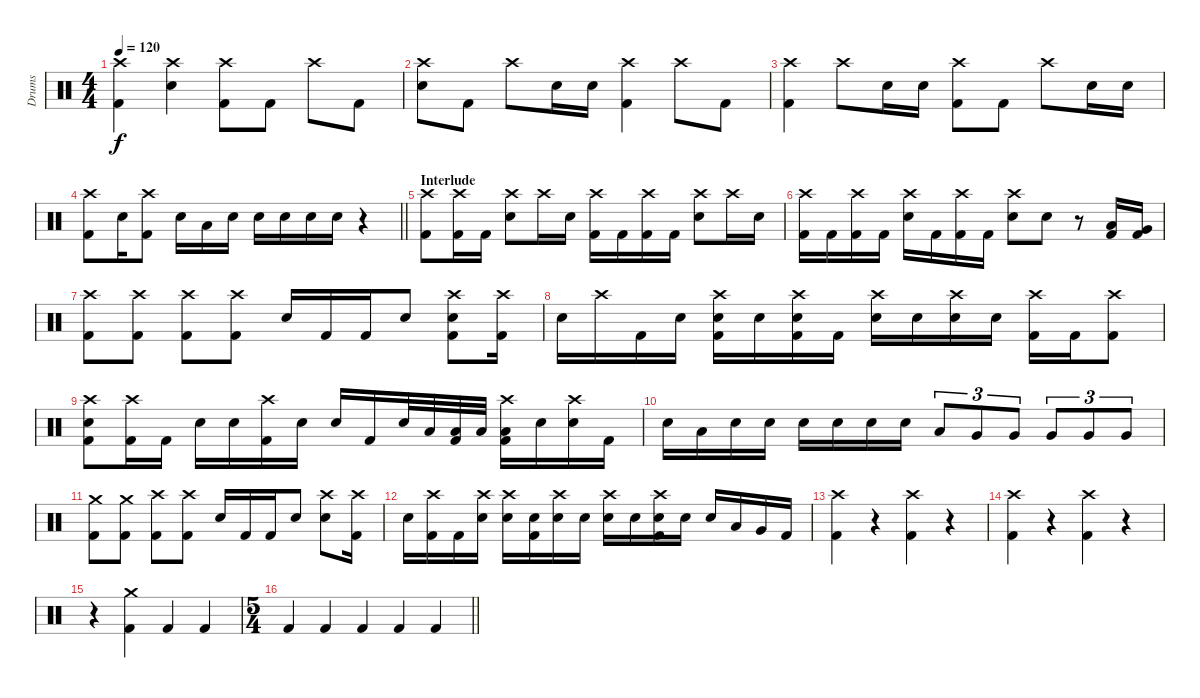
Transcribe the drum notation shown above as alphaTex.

\track ("Drums" "Drums") {instrument percussion}
\staff {score}
\articulation defaults
\ts (4 4)
\tempo 120
\clef neutral
\ks c
("Crash high (hit)" "Kick (hit) 2").4{dy f} ("Crash high (hit)" "Snare (hit) 2").4 ("Crash high (hit)" "Kick (hit) 2").8 "Kick (hit) 2".8 "Crash high (hit)".8 "Kick (hit) 2".8 |
("Crash high (hit)" "Snare (hit) 2").8 "Kick (hit) 2".8 "Crash high (hit)".8 "Snare (hit) 2".16 "Snare (hit) 2".16 ("Crash high (hit)" "Kick (hit) 2").4 "Crash high (hit)".8 "Kick (hit) 2".8 |
("Crash high (hit)" "Kick (hit) 2").4 "Crash high (hit)".8 "Snare (hit) 2".16 "Snare (hit) 2".16 ("Crash high (hit)" "Kick (hit) 2").8 "Kick (hit) 2".8 "Crash high (hit)".8 "Snare (hit) 2".16 "Snare (hit) 2".16 |
\barLineRight lightlight
("Crash high (hit)" "Kick (hit) 2").8 "Snare (hit) 2".16 ("Crash high (hit)" "Kick (hit) 2").8 "Snare (hit) 2".16 "Low Tom (hit)".16 "Snare (hit) 2".16 "Snare (hit) 2".16 "Snare (hit) 2".16 "Snare (hit) 2".16 "Snare (hit) 2".16 r.4 |
\section ("" "Interlude")
("Crash high (hit)" "Kick (hit) 2").8 ("Crash high (hit)" "Kick (hit) 2").16 "Kick (hit) 2".16 ("Crash high (hit)" "Snare (hit) 2").8 "Crash high (hit)".16 "Snare (hit) 2".16 ("Crash high (hit)" "Kick (hit) 2").16 "Kick (hit) 2".16 ("Crash high (hit)" "Kick (hit) 2").16 "Kick (hit) 2".16 ("Crash high (hit)" "Snare (hit) 2").8 "Crash high (hit)".16 "Snare (hit) 2".16 |
("Crash high (hit)" "Kick (hit) 2").16 "Kick (hit) 2".16 ("Crash high (hit)" "Kick (hit) 2").16 "Kick (hit) 2".16 ("Crash high (hit)" "Snare (hit) 2").16 "Kick (hit) 2".16 ("Crash high (hit)" "Kick (hit) 2").16 "Kick (hit) 2".16 ("Crash high (hit)" "Snare (hit) 2").8 "Snare (hit) 2".8 r.8 ("Low Tom (hit)" "Kick (hit) 2").16 ("Very Low Tom (hit)" "Kick (hit) 2").16 |
("Crash high (hit)" "Kick (hit) 2").8 ("Crash high (hit)" "Kick (hit) 2").8 ("Crash high (hit)" "Kick (hit) 2").8 ("Crash high (hit)" "Kick (hit) 2").8 "Snare (hit) 2".16 "Kick (hit) 2".16 "Kick (hit) 2".16 "Snare (hit) 2".8 ("Crash high (hit)" "Snare (hit) 2" "Kick (hit) 2").8 ("Crash high (hit)" "Kick (hit) 2").16 |
"Snare (hit) 2".16 "Crash high (hit)".16 "Kick (hit) 2".16 "Snare (hit) 2".16 ("Crash high (hit)" "Snare (hit) 2" "Kick (hit) 2").16 "Snare (hit) 2".16 ("Crash high (hit)" "Snare (hit) 2" "Kick (hit) 2").16 "Kick (hit) 2".16 ("Crash high (hit)" "Snare (hit) 2").16 "Snare (hit) 2".16 ("Crash high (hit)" "Snare (hit) 2").16 "Snare (hit) 2".16 ("Crash high (hit)" "Kick (hit) 2").16 "Kick (hit) 2".16 ("Crash high (hit)" "Kick (hit) 2").8 |
("Crash high (hit)" "Snare (hit) 2" "Kick (hit) 2").8 ("Crash high (hit)" "Kick (hit) 2").16 "Kick (hit) 2".16 "Snare (hit) 2".16 "Snare (hit) 2".16 ("Crash high (hit)" "Kick (hit) 2").16 "Snare (hit) 2".16 "Snare (hit) 2".16 "Kick (hit) 2".16 "Snare (hit) 2".32 "Low Tom (hit)".32 ("Low Tom (hit)" "Kick (hit) 2").32 "Low Tom (hit)".32 ("Crash high (hit)" "Low Tom (hit)" "Kick (hit) 2").16 "Snare (hit) 2".16 ("Crash high (hit)" "Snare (hit) 2").16 "Kick (hit) 2".16 |
"Snare (hit) 2".16 "Low Tom (hit)".16 "Snare (hit) 2".16 "Snare (hit) 2".16 "Snare (hit) 2".16 "Snare (hit) 2".16 "Snare (hit) 2".16 "Snare (hit) 2".16 "Low Tom (hit)".8{tu (3 2)} "Very Low Tom (hit)".8{tu (3 2)} "Very Low Tom (hit)".8{tu (3 2)} "Very Low Tom (hit)".8{tu (3 2)} "Very Low Tom (hit)".8{tu (3 2)} "Very Low Tom (hit)".8{tu (3 2)} |
("Crash medium (hit)" "Kick (hit) 2").8 ("Crash medium (hit)" "Kick (hit) 2").8 ("Crash high (hit)" "Kick (hit) 2").8 ("Crash high (hit)" "Kick (hit) 2").8 "Snare (hit) 2".16 "Kick (hit) 2".16 "Kick (hit) 2".16 "Snare (hit) 2".8 ("Crash high (hit)" "Snare (hit) 2").8 ("Crash high (hit)" "Kick (hit) 2").16 |
"Snare (hit) 2".16 ("Crash high (hit)" "Kick (hit) 2").16 "Kick (hit) 2".16 ("Crash high (hit)" "Snare (hit) 2").16 ("Crash high (hit)" "Snare (hit) 2").16 ("Snare (hit) 2" "Kick (hit) 2").16 ("Crash high (hit)" "Snare (hit) 2").16 "Snare (hit) 2".16 ("Crash high (hit)" "Snare (hit) 2").16 "Snare (hit) 2".16 ("Crash high (hit)" "Snare (hit) 2" "Kick (hit) 2").16 "Snare (hit) 2".16 "Snare (hit) 2".16 "Low Tom (hit)".16 "Very Low Tom (hit)".16 "Kick (hit) 2".16 |
("Crash high (hit)" "Kick (hit) 2").4 r.4 ("Crash high (hit)" "Kick (hit) 2").4 r.4 |
("Crash high (hit)" "Kick (hit) 2").4 r.4 ("Crash high (hit)" "Kick (hit) 2").4 r.4 |
r.4 ("Crash medium (hit)" "Kick (hit) 2").4 "Kick (hit) 2".4 "Kick (hit) 2".4 |
\ts (5 4)
\barLineRight lightlight "Kick (hit) 2".4 "Kick (hit) 2".4 "Kick (hit) 2".4 "Kick (hit) 2".4 "Kick (hit) 2".4
